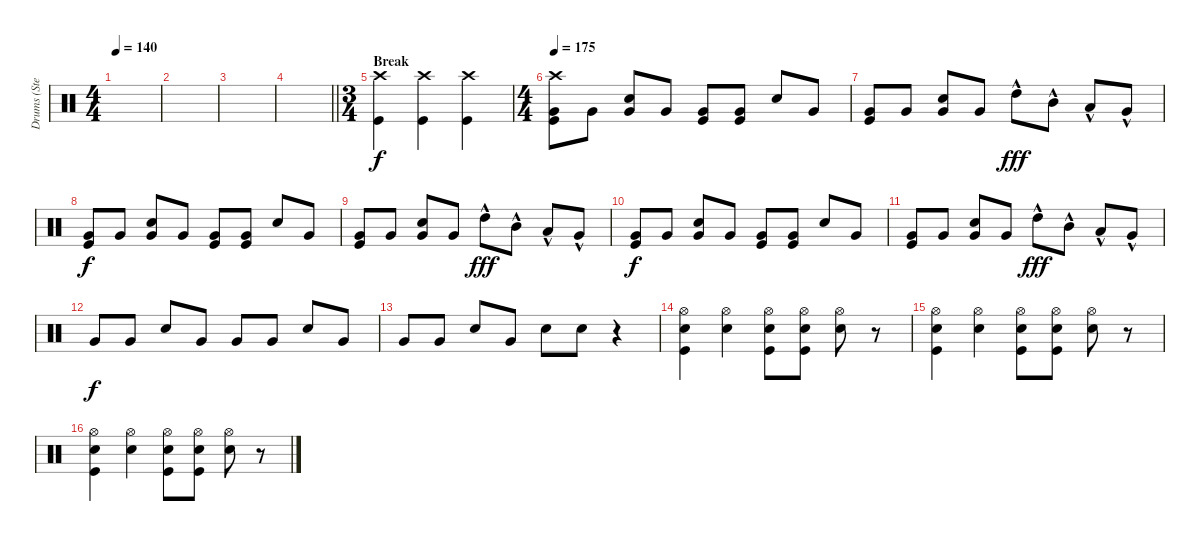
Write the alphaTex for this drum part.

\track ("Drums (Stevo)" "Drums (Ste") {instrument percussion}
\staff {score}
\articulation defaults
\ts (4 4)
\tempo 140
\clef neutral
\ks c
|
|
|
\barLineRight lightlight
|
\ts (3 4)
\section ("" "Break")
("Crash high (hit)" "Kick (hit)").4 ("Crash high (hit)" "Kick (hit)").4 ("Crash high (hit)" "Kick (hit)").4 |
\ts (4 4)
\tempo 175
("Very Low Tom (hit)" "Kick (hit)" "Crash high (hit)").8 "Very Low Tom (hit)".8 ("Very Low Tom (hit)" "Snare (hit) 2").8 "Very Low Tom (hit)".8 ("Very Low Tom (hit)" "Kick (hit)").8 ("Very Low Tom (hit)" "Kick (hit)").8 "Snare (hit) 2".8 "Very Low Tom (hit)".8 |
("Kick (hit)" "Very Low Tom (hit)").8 "Very Low Tom (hit)".8 ("Very Low Tom (hit)" "Snare (hit) 2").8 "Very Low Tom (hit)".8 "High Tom (hit)"{hac}.8{dy fff} "Mid Tom (hit)"{hac}.8 "Low Tom (hit)"{hac}.8 "Very Low Tom (hit)"{hac}.8 |
("Very Low Tom (hit)" "Kick (hit)").8{dy f} "Very Low Tom (hit)".8 ("Very Low Tom (hit)" "Snare (hit) 2").8 "Very Low Tom (hit)".8 ("Very Low Tom (hit)" "Kick (hit)").8 ("Very Low Tom (hit)" "Kick (hit)").8 "Snare (hit) 2".8 "Very Low Tom (hit)".8 |
("Kick (hit)" "Very Low Tom (hit)").8 "Very Low Tom (hit)".8 ("Very Low Tom (hit)" "Snare (hit) 2").8 "Very Low Tom (hit)".8 "High Tom (hit)"{hac}.8{dy fff} "Mid Tom (hit)"{hac}.8 "Low Tom (hit)"{hac}.8 "Very Low Tom (hit)"{hac}.8 |
("Very Low Tom (hit)" "Kick (hit)").8{dy f} "Very Low Tom (hit)".8 ("Very Low Tom (hit)" "Snare (hit) 2").8 "Very Low Tom (hit)".8 ("Very Low Tom (hit)" "Kick (hit)").8 ("Very Low Tom (hit)" "Kick (hit)").8 "Snare (hit) 2".8 "Very Low Tom (hit)".8 |
("Kick (hit)" "Very Low Tom (hit)").8 "Very Low Tom (hit)".8 ("Very Low Tom (hit)" "Snare (hit) 2").8 "Very Low Tom (hit)".8 "High Tom (hit)"{hac}.8{dy fff} "Mid Tom (hit)"{hac}.8 "Low Tom (hit)"{hac}.8 "Very Low Tom (hit)"{hac}.8 |
"Very Low Tom (hit)".8{dy f} "Very Low Tom (hit)".8 "Snare (hit) 2".8 "Very Low Tom (hit)".8 "Very Low Tom (hit)".8 "Very Low Tom (hit)".8 "Snare (hit) 2".8 "Very Low Tom (hit)".8 |
"Very Low Tom (hit)".8 "Very Low Tom (hit)".8 "Snare (hit) 2".8 "Very Low Tom (hit)".8 "Snare (hit) 2".8 "Snare (hit) 2".8 r.4 |
("Hi-Hat (open)" "Kick (hit)" "Snare (hit) 2").4 ("Hi-Hat (open)" "Snare (hit) 2").4 ("Hi-Hat (open)" "Kick (hit)" "Snare (hit) 2").8 ("Hi-Hat (open)" "Kick (hit)" "Snare (hit) 2").8 ("Hi-Hat (open)" "Snare (hit) 2").8 r.8 |
("Hi-Hat (open)" "Kick (hit)" "Snare (hit) 2").4 ("Hi-Hat (open)" "Snare (hit) 2").4 ("Hi-Hat (open)" "Kick (hit)" "Snare (hit) 2").8 ("Hi-Hat (open)" "Kick (hit)" "Snare (hit) 2").8 ("Hi-Hat (open)" "Snare (hit) 2").8 r.8 |
("Hi-Hat (open)" "Kick (hit)" "Snare (hit) 2").4 ("Hi-Hat (open)" "Snare (hit) 2").4 ("Hi-Hat (open)" "Kick (hit)" "Snare (hit) 2").8 ("Hi-Hat (open)" "Kick (hit)" "Snare (hit) 2").8 ("Hi-Hat (open)" "Snare (hit) 2").8 r.8
